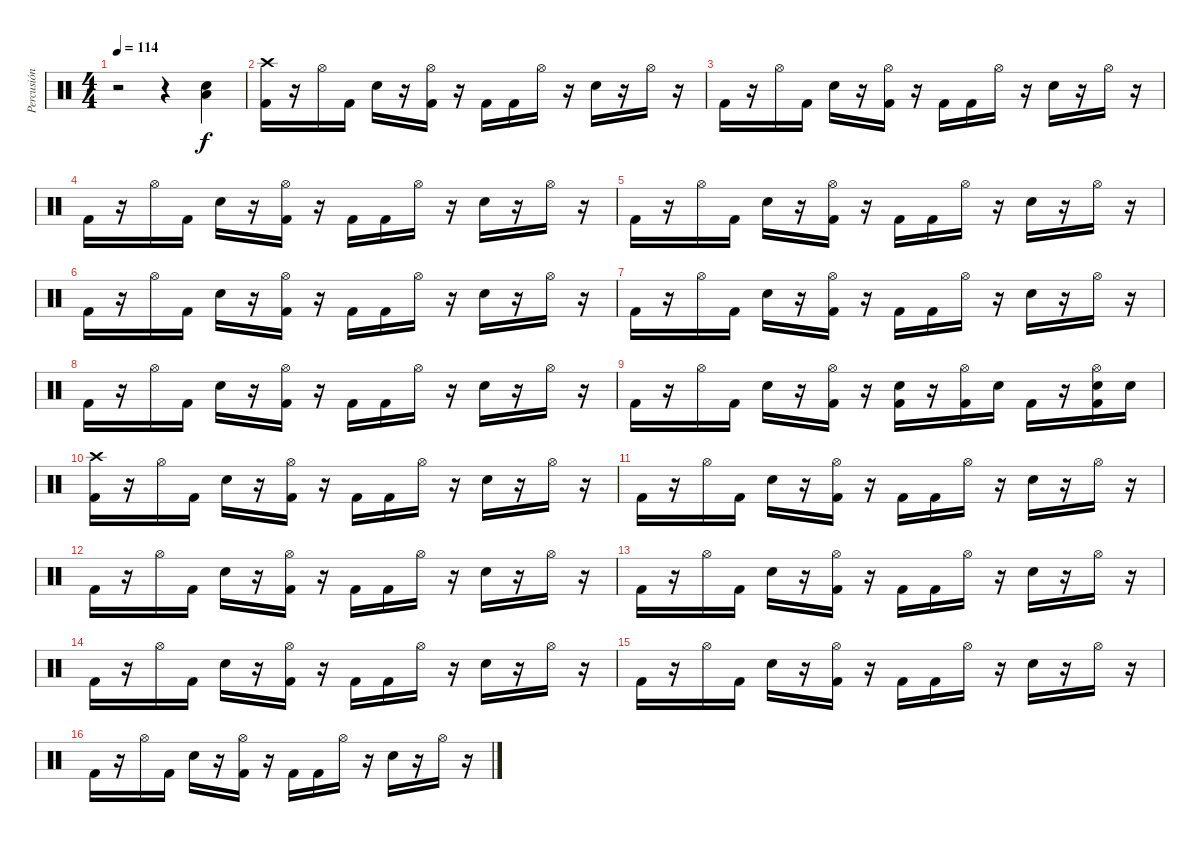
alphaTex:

\track ("Percusión" "Percusión") {instrument percussion}
\staff {score}
\articulation defaults
\ts (4 4)
\tempo 114
\clef neutral
\ks c
r.2{dy f} r.4 ("Low Floor Tom (hit)" "Snare (hit) 2").4 |
("Crash high (hit)" "Kick (hit) 2").16 r.16 "Hi-Hat (open)".16 "Kick (hit) 2".16 "Snare (hit) 2".16 r.16 ("Hi-Hat (open)" "Kick (hit) 2").16 r.16 "Kick (hit) 2".16 "Kick (hit) 2".16 "Hi-Hat (open)".16 r.16 "Snare (hit) 2".16 r.16 "Hi-Hat (open)".16 r.16 |
"Kick (hit) 2".16 r.16 "Hi-Hat (open)".16 "Kick (hit) 2".16 "Snare (hit) 2".16 r.16 ("Hi-Hat (open)" "Kick (hit) 2").16 r.16 "Kick (hit) 2".16 "Kick (hit) 2".16 "Hi-Hat (open)".16 r.16 "Snare (hit) 2".16 r.16 "Hi-Hat (open)".16 r.16 |
"Kick (hit) 2".16 r.16 "Hi-Hat (open)".16 "Kick (hit) 2".16 "Snare (hit) 2".16 r.16 ("Hi-Hat (open)" "Kick (hit) 2").16 r.16 "Kick (hit) 2".16 "Kick (hit) 2".16 "Hi-Hat (open)".16 r.16 "Snare (hit) 2".16 r.16 "Hi-Hat (open)".16 r.16 |
"Kick (hit) 2".16 r.16 "Hi-Hat (open)".16 "Kick (hit) 2".16 "Snare (hit) 2".16 r.16 ("Hi-Hat (open)" "Kick (hit) 2").16 r.16 "Kick (hit) 2".16 "Kick (hit) 2".16 "Hi-Hat (open)".16 r.16 "Snare (hit) 2".16 r.16 "Hi-Hat (open)".16 r.16 |
"Kick (hit) 2".16 r.16 "Hi-Hat (open)".16 "Kick (hit) 2".16 "Snare (hit) 2".16 r.16 ("Hi-Hat (open)" "Kick (hit) 2").16 r.16 "Kick (hit) 2".16 "Kick (hit) 2".16 "Hi-Hat (open)".16 r.16 "Snare (hit) 2".16 r.16 "Hi-Hat (open)".16 r.16 |
"Kick (hit) 2".16 r.16 "Hi-Hat (open)".16 "Kick (hit) 2".16 "Snare (hit) 2".16 r.16 ("Hi-Hat (open)" "Kick (hit) 2").16 r.16 "Kick (hit) 2".16 "Kick (hit) 2".16 "Hi-Hat (open)".16 r.16 "Snare (hit) 2".16 r.16 "Hi-Hat (open)".16 r.16 |
"Kick (hit) 2".16 r.16 "Hi-Hat (open)".16 "Kick (hit) 2".16 "Snare (hit) 2".16 r.16 ("Hi-Hat (open)" "Kick (hit) 2").16 r.16 "Kick (hit) 2".16 "Kick (hit) 2".16 "Hi-Hat (open)".16 r.16 "Snare (hit) 2".16 r.16 "Hi-Hat (open)".16 r.16 |
"Kick (hit) 2".16 r.16 "Hi-Hat (open)".16 "Kick (hit) 2".16 "Snare (hit) 2".16 r.16 ("Hi-Hat (open)" "Kick (hit) 2").16 r.16 ("Snare (hit) 2" "Kick (hit) 2").16 r.16 ("Hi-Hat (open)" "Kick (hit) 2").16 "Snare (hit) 2".16 "Kick (hit) 2".16 r.16 ("Hi-Hat (open)" "Snare (hit) 2" "Kick (hit) 2").16 "Snare (hit) 2".16 |
("Crash high (hit)" "Kick (hit) 2").16 r.16 "Hi-Hat (open)".16 "Kick (hit) 2".16 "Snare (hit) 2".16 r.16 ("Hi-Hat (open)" "Kick (hit) 2").16 r.16 "Kick (hit) 2".16 "Kick (hit) 2".16 "Hi-Hat (open)".16 r.16 "Snare (hit) 2".16 r.16 "Hi-Hat (open)".16 r.16 |
"Kick (hit) 2".16 r.16 "Hi-Hat (open)".16 "Kick (hit) 2".16 "Snare (hit) 2".16 r.16 ("Hi-Hat (open)" "Kick (hit) 2").16 r.16 "Kick (hit) 2".16 "Kick (hit) 2".16 "Hi-Hat (open)".16 r.16 "Snare (hit) 2".16 r.16 "Hi-Hat (open)".16 r.16 |
"Kick (hit) 2".16 r.16 "Hi-Hat (open)".16 "Kick (hit) 2".16 "Snare (hit) 2".16 r.16 ("Hi-Hat (open)" "Kick (hit) 2").16 r.16 "Kick (hit) 2".16 "Kick (hit) 2".16 "Hi-Hat (open)".16 r.16 "Snare (hit) 2".16 r.16 "Hi-Hat (open)".16 r.16 |
"Kick (hit) 2".16 r.16 "Hi-Hat (open)".16 "Kick (hit) 2".16 "Snare (hit) 2".16 r.16 ("Hi-Hat (open)" "Kick (hit) 2").16 r.16 "Kick (hit) 2".16 "Kick (hit) 2".16 "Hi-Hat (open)".16 r.16 "Snare (hit) 2".16 r.16 "Hi-Hat (open)".16 r.16 |
"Kick (hit) 2".16 r.16 "Hi-Hat (open)".16 "Kick (hit) 2".16 "Snare (hit) 2".16 r.16 ("Hi-Hat (open)" "Kick (hit) 2").16 r.16 "Kick (hit) 2".16 "Kick (hit) 2".16 "Hi-Hat (open)".16 r.16 "Snare (hit) 2".16 r.16 "Hi-Hat (open)".16 r.16 |
"Kick (hit) 2".16 r.16 "Hi-Hat (open)".16 "Kick (hit) 2".16 "Snare (hit) 2".16 r.16 ("Hi-Hat (open)" "Kick (hit) 2").16 r.16 "Kick (hit) 2".16 "Kick (hit) 2".16 "Hi-Hat (open)".16 r.16 "Snare (hit) 2".16 r.16 "Hi-Hat (open)".16 r.16 |
"Kick (hit) 2".16 r.16 "Hi-Hat (open)".16 "Kick (hit) 2".16 "Snare (hit) 2".16 r.16 ("Hi-Hat (open)" "Kick (hit) 2").16 r.16 "Kick (hit) 2".16 "Kick (hit) 2".16 "Hi-Hat (open)".16 r.16 "Snare (hit) 2".16 r.16 "Hi-Hat (open)".16 r.16
